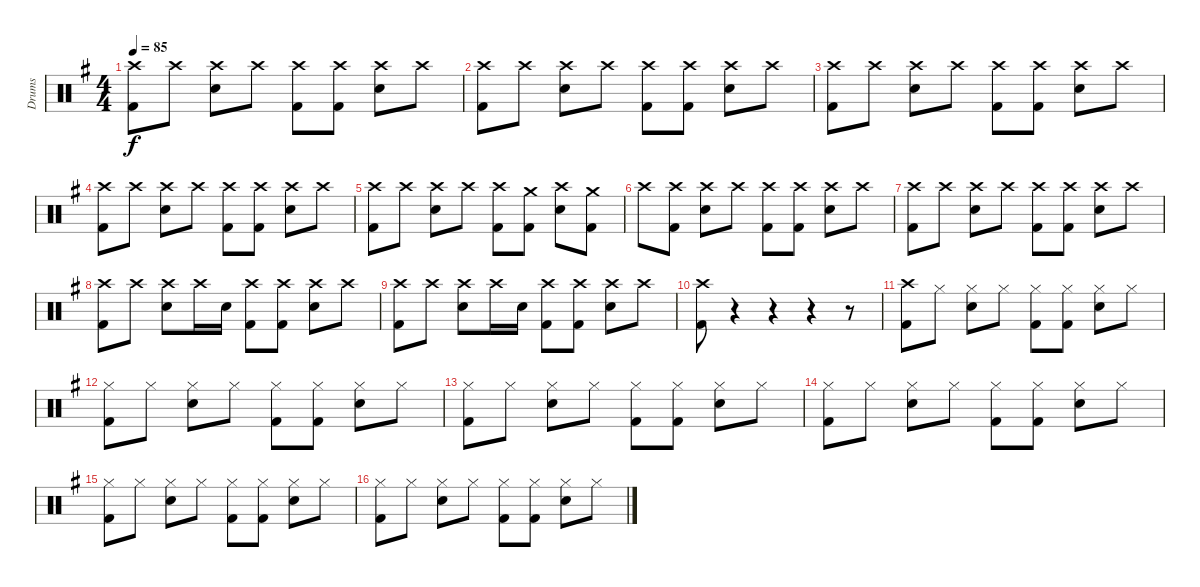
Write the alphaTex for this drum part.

\track ("Drums" "Drums") {instrument percussion}
\staff {score}
\articulation defaults
\ts (4 4)
\tempo 85
\clef neutral
\ks g
("Crash high (hit)" "Kick (hit) 2").8{dy f} "Crash high (hit)".8 ("Crash high (hit)" "Snare (hit) 2").8 "Crash high (hit)".8 ("Crash high (hit)" "Kick (hit) 2").8 ("Crash high (hit)" "Kick (hit) 2").8 ("Crash high (hit)" "Snare (hit) 2").8 "Crash high (hit)".8 |
("Crash high (hit)" "Kick (hit) 2").8 "Crash high (hit)".8 ("Crash high (hit)" "Snare (hit) 2").8 "Crash high (hit)".8 ("Crash high (hit)" "Kick (hit) 2").8 ("Crash high (hit)" "Kick (hit) 2").8 ("Crash high (hit)" "Snare (hit) 2").8 "Crash high (hit)".8 |
("Crash high (hit)" "Kick (hit) 2").8 "Crash high (hit)".8 ("Crash high (hit)" "Snare (hit) 2").8 "Crash high (hit)".8 ("Crash high (hit)" "Kick (hit) 2").8 ("Crash high (hit)" "Kick (hit) 2").8 ("Crash high (hit)" "Snare (hit) 2").8 "Crash high (hit)".8 |
("Crash high (hit)" "Kick (hit) 2").8 "Crash high (hit)".8 ("Crash high (hit)" "Snare (hit) 2").8 "Crash high (hit)".8 ("Crash high (hit)" "Kick (hit) 2").8 ("Crash high (hit)" "Kick (hit) 2").8 ("Crash high (hit)" "Snare (hit) 2").8 "Crash high (hit)".8 |
("Crash high (hit)" "Kick (hit) 2").8 "Crash high (hit)".8 ("Crash high (hit)" "Snare (hit) 2").8 "Crash high (hit)".8 ("Crash high (hit)" "Kick (hit) 2").8 ("Crash medium (hit)" "Kick (hit) 2").8 ("Crash high (hit)" "Snare (hit) 2").8 ("Crash medium (hit)" "Kick (hit) 2").8 |
"Crash high (hit)".8 ("Crash high (hit)" "Kick (hit) 2").8 ("Crash high (hit)" "Snare (hit) 2").8 "Crash high (hit)".8 ("Crash high (hit)" "Kick (hit) 2").8 ("Crash high (hit)" "Kick (hit) 2").8 ("Crash high (hit)" "Snare (hit) 2").8 "Crash high (hit)".8 |
("Crash high (hit)" "Kick (hit) 2").8 "Crash high (hit)".8 ("Crash high (hit)" "Snare (hit) 2").8 "Crash high (hit)".8 ("Crash high (hit)" "Kick (hit) 2").8 ("Crash high (hit)" "Kick (hit) 2").8 ("Crash high (hit)" "Snare (hit) 2").8 "Crash high (hit)".8 |
("Crash high (hit)" "Kick (hit) 2").8 "Crash high (hit)".8 ("Crash high (hit)" "Snare (hit) 2").8 "Crash high (hit)".16 "Snare (hit) 2".16 ("Crash high (hit)" "Kick (hit) 2").8 ("Crash high (hit)" "Kick (hit) 2").8 ("Crash high (hit)" "Snare (hit) 2").8 "Crash high (hit)".8 |
("Crash high (hit)" "Kick (hit) 2").8 "Crash high (hit)".8 ("Crash high (hit)" "Snare (hit) 2").8 "Crash high (hit)".16 "Snare (hit) 2".16 ("Crash high (hit)" "Kick (hit) 2").8 ("Crash high (hit)" "Kick (hit) 2").8 ("Crash high (hit)" "Snare (hit) 2").8 "Crash high (hit)".8 |
("Crash high (hit)" "Kick (hit) 2").8 r.4 r.4 r.4 r.8 |
("Crash high (hit)" "Kick (hit) 2").8 "Hi-Hat (closed)".8 ("Hi-Hat (closed)" "Snare (hit) 2").8 "Hi-Hat (closed)".8 ("Hi-Hat (closed)" "Kick (hit) 2").8 ("Hi-Hat (closed)" "Kick (hit) 2").8 ("Hi-Hat (closed)" "Snare (hit) 2").8 "Hi-Hat (closed)".8 |
("Hi-Hat (closed)" "Kick (hit) 2").8 "Hi-Hat (closed)".8 ("Hi-Hat (closed)" "Snare (hit) 2").8 "Hi-Hat (closed)".8 ("Hi-Hat (closed)" "Kick (hit) 2").8 ("Hi-Hat (closed)" "Kick (hit) 2").8 ("Hi-Hat (closed)" "Snare (hit) 2").8 "Hi-Hat (closed)".8 |
("Hi-Hat (closed)" "Kick (hit) 2").8 "Hi-Hat (closed)".8 ("Hi-Hat (closed)" "Snare (hit) 2").8 "Hi-Hat (closed)".8 ("Hi-Hat (closed)" "Kick (hit) 2").8 ("Hi-Hat (closed)" "Kick (hit) 2").8 ("Hi-Hat (closed)" "Snare (hit) 2").8 "Hi-Hat (closed)".8 |
("Hi-Hat (closed)" "Kick (hit) 2").8 "Hi-Hat (closed)".8 ("Hi-Hat (closed)" "Snare (hit) 2").8 "Hi-Hat (closed)".8 ("Hi-Hat (closed)" "Kick (hit) 2").8 ("Hi-Hat (closed)" "Kick (hit) 2").8 ("Hi-Hat (closed)" "Snare (hit) 2").8 "Hi-Hat (closed)".8 |
("Hi-Hat (closed)" "Kick (hit) 2").8 "Hi-Hat (closed)".8 ("Hi-Hat (closed)" "Snare (hit) 2").8 "Hi-Hat (closed)".8 ("Hi-Hat (closed)" "Kick (hit) 2").8 ("Hi-Hat (closed)" "Kick (hit) 2").8 ("Hi-Hat (closed)" "Snare (hit) 2").8 "Hi-Hat (closed)".8 |
("Hi-Hat (closed)" "Kick (hit) 2").8 "Hi-Hat (closed)".8 ("Hi-Hat (closed)" "Snare (hit) 2").8 "Hi-Hat (closed)".8 ("Hi-Hat (closed)" "Kick (hit) 2").8 ("Hi-Hat (closed)" "Kick (hit) 2").8 ("Hi-Hat (closed)" "Snare (hit) 2").8 "Hi-Hat (closed)".8
